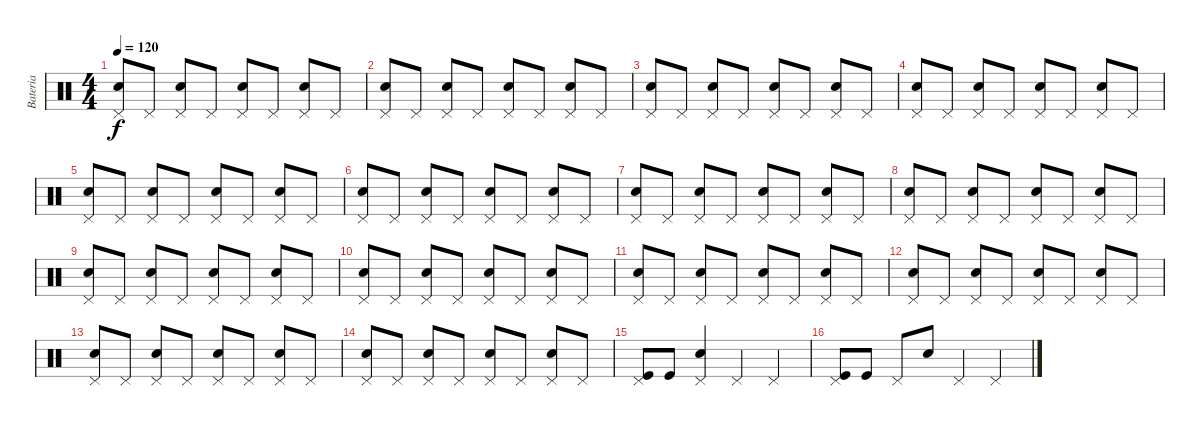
\track ("Bateria" "Bateria") {instrument percussion}
\staff {score}
\articulation defaults
\ts (4 4)
\tempo 120
\clef neutral
\ks c
("Pedal Hi-Hat (hit)" "Snare (hit) 2").8{dy f} "Pedal Hi-Hat (hit)".8 ("Pedal Hi-Hat (hit)" "Snare (hit) 2").8 "Pedal Hi-Hat (hit)".8 ("Pedal Hi-Hat (hit)" "Snare (hit) 2").8 "Pedal Hi-Hat (hit)".8 ("Pedal Hi-Hat (hit)" "Snare (hit) 2").8 "Pedal Hi-Hat (hit)".8 |
("Pedal Hi-Hat (hit)" "Snare (hit) 2").8 "Pedal Hi-Hat (hit)".8 ("Pedal Hi-Hat (hit)" "Snare (hit) 2").8 "Pedal Hi-Hat (hit)".8 ("Pedal Hi-Hat (hit)" "Snare (hit) 2").8 "Pedal Hi-Hat (hit)".8 ("Pedal Hi-Hat (hit)" "Snare (hit) 2").8 "Pedal Hi-Hat (hit)".8 |
("Pedal Hi-Hat (hit)" "Snare (hit) 2").8 "Pedal Hi-Hat (hit)".8 ("Pedal Hi-Hat (hit)" "Snare (hit) 2").8 "Pedal Hi-Hat (hit)".8 ("Pedal Hi-Hat (hit)" "Snare (hit) 2").8 "Pedal Hi-Hat (hit)".8 ("Pedal Hi-Hat (hit)" "Snare (hit) 2").8 "Pedal Hi-Hat (hit)".8 |
("Pedal Hi-Hat (hit)" "Snare (hit) 2").8 "Pedal Hi-Hat (hit)".8 ("Pedal Hi-Hat (hit)" "Snare (hit) 2").8 "Pedal Hi-Hat (hit)".8 ("Pedal Hi-Hat (hit)" "Snare (hit) 2").8 "Pedal Hi-Hat (hit)".8 ("Pedal Hi-Hat (hit)" "Snare (hit) 2").8 "Pedal Hi-Hat (hit)".8 |
("Pedal Hi-Hat (hit)" "Snare (hit) 2").8 "Pedal Hi-Hat (hit)".8 ("Pedal Hi-Hat (hit)" "Snare (hit) 2").8 "Pedal Hi-Hat (hit)".8 ("Pedal Hi-Hat (hit)" "Snare (hit) 2").8 "Pedal Hi-Hat (hit)".8 ("Pedal Hi-Hat (hit)" "Snare (hit) 2").8 "Pedal Hi-Hat (hit)".8 |
("Pedal Hi-Hat (hit)" "Snare (hit) 2").8 "Pedal Hi-Hat (hit)".8 ("Pedal Hi-Hat (hit)" "Snare (hit) 2").8 "Pedal Hi-Hat (hit)".8 ("Pedal Hi-Hat (hit)" "Snare (hit) 2").8 "Pedal Hi-Hat (hit)".8 ("Pedal Hi-Hat (hit)" "Snare (hit) 2").8 "Pedal Hi-Hat (hit)".8 |
("Pedal Hi-Hat (hit)" "Snare (hit) 2").8 "Pedal Hi-Hat (hit)".8 ("Pedal Hi-Hat (hit)" "Snare (hit) 2").8 "Pedal Hi-Hat (hit)".8 ("Pedal Hi-Hat (hit)" "Snare (hit) 2").8 "Pedal Hi-Hat (hit)".8 ("Pedal Hi-Hat (hit)" "Snare (hit) 2").8 "Pedal Hi-Hat (hit)".8 |
("Pedal Hi-Hat (hit)" "Snare (hit) 2").8 "Pedal Hi-Hat (hit)".8 ("Pedal Hi-Hat (hit)" "Snare (hit) 2").8 "Pedal Hi-Hat (hit)".8 ("Pedal Hi-Hat (hit)" "Snare (hit) 2").8 "Pedal Hi-Hat (hit)".8 ("Pedal Hi-Hat (hit)" "Snare (hit) 2").8 "Pedal Hi-Hat (hit)".8 |
("Pedal Hi-Hat (hit)" "Snare (hit) 2").8 "Pedal Hi-Hat (hit)".8 ("Pedal Hi-Hat (hit)" "Snare (hit) 2").8 "Pedal Hi-Hat (hit)".8 ("Pedal Hi-Hat (hit)" "Snare (hit) 2").8 "Pedal Hi-Hat (hit)".8 ("Pedal Hi-Hat (hit)" "Snare (hit) 2").8 "Pedal Hi-Hat (hit)".8 |
("Pedal Hi-Hat (hit)" "Snare (hit) 2").8 "Pedal Hi-Hat (hit)".8 ("Pedal Hi-Hat (hit)" "Snare (hit) 2").8 "Pedal Hi-Hat (hit)".8 ("Pedal Hi-Hat (hit)" "Snare (hit) 2").8 "Pedal Hi-Hat (hit)".8 ("Pedal Hi-Hat (hit)" "Snare (hit) 2").8 "Pedal Hi-Hat (hit)".8 |
("Pedal Hi-Hat (hit)" "Snare (hit) 2").8 "Pedal Hi-Hat (hit)".8 ("Pedal Hi-Hat (hit)" "Snare (hit) 2").8 "Pedal Hi-Hat (hit)".8 ("Pedal Hi-Hat (hit)" "Snare (hit) 2").8 "Pedal Hi-Hat (hit)".8 ("Pedal Hi-Hat (hit)" "Snare (hit) 2").8 "Pedal Hi-Hat (hit)".8 |
("Pedal Hi-Hat (hit)" "Snare (hit) 2").8 "Pedal Hi-Hat (hit)".8 ("Pedal Hi-Hat (hit)" "Snare (hit) 2").8 "Pedal Hi-Hat (hit)".8 ("Pedal Hi-Hat (hit)" "Snare (hit) 2").8 "Pedal Hi-Hat (hit)".8 ("Pedal Hi-Hat (hit)" "Snare (hit) 2").8 "Pedal Hi-Hat (hit)".8 |
("Pedal Hi-Hat (hit)" "Snare (hit) 2").8 "Pedal Hi-Hat (hit)".8 ("Pedal Hi-Hat (hit)" "Snare (hit) 2").8 "Pedal Hi-Hat (hit)".8 ("Pedal Hi-Hat (hit)" "Snare (hit) 2").8 "Pedal Hi-Hat (hit)".8 ("Pedal Hi-Hat (hit)" "Snare (hit) 2").8 "Pedal Hi-Hat (hit)".8 |
("Pedal Hi-Hat (hit)" "Snare (hit) 2").8 "Pedal Hi-Hat (hit)".8 ("Pedal Hi-Hat (hit)" "Snare (hit) 2").8 "Pedal Hi-Hat (hit)".8 ("Pedal Hi-Hat (hit)" "Snare (hit) 2").8 "Pedal Hi-Hat (hit)".8 ("Pedal Hi-Hat (hit)" "Snare (hit) 2").8 "Pedal Hi-Hat (hit)".8 |
("Pedal Hi-Hat (hit)" "Kick (hit)").8 "Kick (hit)".8 ("Pedal Hi-Hat (hit)" "Snare (hit) 2").4 "Pedal Hi-Hat (hit)".4 "Pedal Hi-Hat (hit)".4 |
("Pedal Hi-Hat (hit)" "Kick (hit)").8 "Kick (hit)".8 "Pedal Hi-Hat (hit)".8 "Snare (hit) 2".8 "Pedal Hi-Hat (hit)".4 "Pedal Hi-Hat (hit)".4
